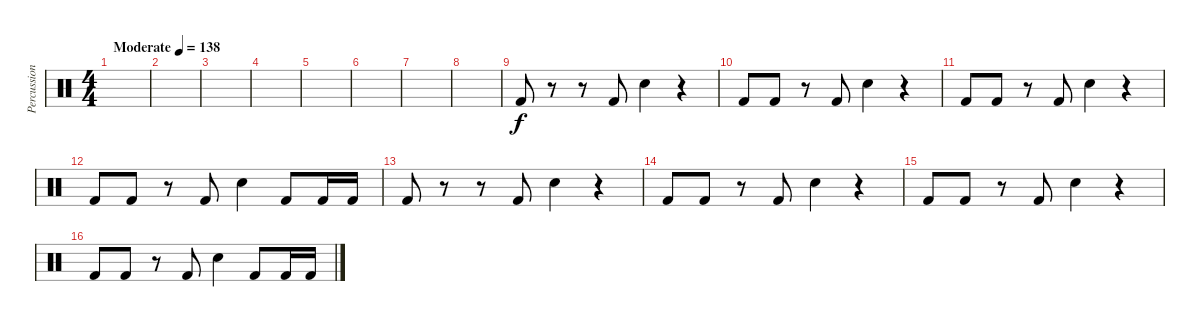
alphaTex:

\track ("Percussion" "Percussion") {instrument percussion}
\staff {score}
\articulation defaults
\ts (4 4)
\tempo (138 "Moderate")
\clef neutral
\ks c
|
|
|
|
|
|
|
|
"Kick (hit) 2".8 r.8 r.8 "Kick (hit) 2".8 "Electric Snare (hit)".4 r.4 |
"Kick (hit) 2".8 "Kick (hit) 2".8 r.8 "Kick (hit) 2".8 "Electric Snare (hit)".4 r.4 |
"Kick (hit) 2".8 "Kick (hit) 2".8 r.8 "Kick (hit) 2".8 "Electric Snare (hit)".4 r.4 |
"Kick (hit) 2".8 "Kick (hit) 2".8 r.8 "Kick (hit) 2".8 "Electric Snare (hit)".4 "Kick (hit) 2".8 "Kick (hit) 2".16 "Kick (hit) 2".16 |
"Kick (hit) 2".8 r.8 r.8 "Kick (hit) 2".8 "Electric Snare (hit)".4 r.4 |
"Kick (hit) 2".8 "Kick (hit) 2".8 r.8 "Kick (hit) 2".8 "Electric Snare (hit)".4 r.4 |
"Kick (hit) 2".8 "Kick (hit) 2".8 r.8 "Kick (hit) 2".8 "Electric Snare (hit)".4 r.4 |
"Kick (hit) 2".8 "Kick (hit) 2".8 r.8 "Kick (hit) 2".8 "Electric Snare (hit)".4 "Kick (hit) 2".8 "Kick (hit) 2".16 "Kick (hit) 2".16
